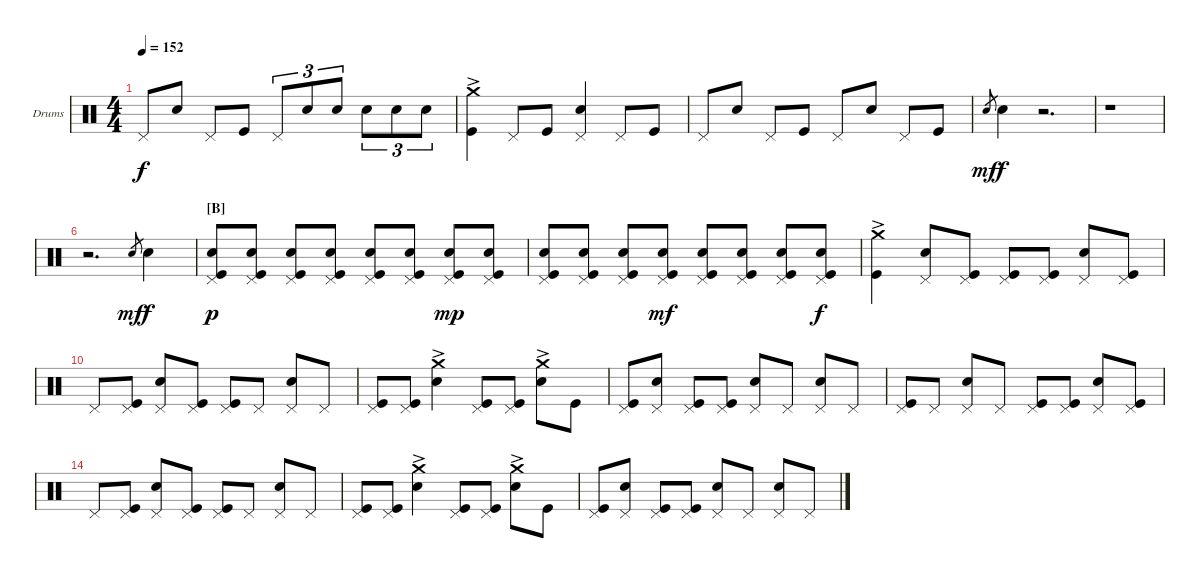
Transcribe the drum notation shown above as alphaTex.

\bracketExtendMode nobrackets
\firstSystemTrackNameOrientation horizontal
\otherSystemsTrackNameOrientation horizontal
\defaultBarNumberDisplay FirstOfSystem
\track ("Drumkit" "Drums") {instrument percussion}
\staff {score}
\articulation defaults
\ts (4 4)
\tempo 152
\clef neutral
\ks c "Pedal Hi-Hat (hit)".8{dy f} "Snare (hit) 2".8 "Pedal Hi-Hat (hit)".8 "Kick (hit)".8 "Pedal Hi-Hat (hit)".8{tu (3 2)} "Snare (hit) 2".8{tu (3 2)} "Snare (hit) 2".8{tu (3 2)} "Snare (hit) 2".8{tu (3 2)} "Snare (hit) 2".8{tu (3 2)} "Snare (hit) 2".8{tu (3 2)}
|
("Crash medium (hit)"{ac} "Kick (hit)").4 "Pedal Hi-Hat (hit)".8 "Kick (hit)".8 ("Pedal Hi-Hat (hit)" "Snare (hit) 2").4 "Pedal Hi-Hat (hit)".8 "Kick (hit)".8 |
"Pedal Hi-Hat (hit)".8 "Snare (hit) 2".8 "Pedal Hi-Hat (hit)".8 "Kick (hit)".8 "Pedal Hi-Hat (hit)".8 "Snare (hit) 2".8 "Pedal Hi-Hat (hit)".8 "Kick (hit)".8 |
"Snare (hit) 2".8{gr dy mf} "Snare (hit) 2".4{dy f} r.2{d} |
r.1 |
r.2{d} "Snare (hit) 2".8{gr dy mf} "Snare (hit) 2".4{dy f} |
\section ("B" "")
("Pedal Hi-Hat (hit)" "Snare (hit) 2" "Kick (hit)").8{dy p} ("Pedal Hi-Hat (hit)" "Snare (hit) 2" "Kick (hit)").8 ("Pedal Hi-Hat (hit)" "Snare (hit) 2" "Kick (hit)").8 ("Pedal Hi-Hat (hit)" "Snare (hit) 2" "Kick (hit)").8 ("Pedal Hi-Hat (hit)" "Snare (hit) 2" "Kick (hit)").8 ("Pedal Hi-Hat (hit)" "Snare (hit) 2" "Kick (hit)").8 ("Pedal Hi-Hat (hit)" "Snare (hit) 2" "Kick (hit)").8{dy mp} ("Pedal Hi-Hat (hit)" "Snare (hit) 2" "Kick (hit)").8 |
("Pedal Hi-Hat (hit)" "Snare (hit) 2" "Kick (hit)").8 ("Pedal Hi-Hat (hit)" "Snare (hit) 2" "Kick (hit)").8 ("Pedal Hi-Hat (hit)" "Snare (hit) 2" "Kick (hit)").8 ("Pedal Hi-Hat (hit)" "Snare (hit) 2" "Kick (hit)").8{dy mf} ("Pedal Hi-Hat (hit)" "Snare (hit) 2" "Kick (hit)").8 ("Pedal Hi-Hat (hit)" "Snare (hit) 2" "Kick (hit)").8 ("Pedal Hi-Hat (hit)" "Snare (hit) 2" "Kick (hit)").8 ("Pedal Hi-Hat (hit)" "Snare (hit) 2" "Kick (hit)").8{dy f} |
("Crash medium (hit)"{ac} "Kick (hit)").4 ("Pedal Hi-Hat (hit)" "Snare (hit) 2").8 ("Pedal Hi-Hat (hit)" "Kick (hit)").8 ("Pedal Hi-Hat (hit)" "Kick (hit)").8 ("Pedal Hi-Hat (hit)" "Kick (hit)").8 ("Pedal Hi-Hat (hit)" "Snare (hit) 2").8 ("Pedal Hi-Hat (hit)" "Kick (hit)").8 |
"Pedal Hi-Hat (hit)".8 ("Pedal Hi-Hat (hit)" "Kick (hit)").8 ("Pedal Hi-Hat (hit)" "Snare (hit) 2").8 ("Pedal Hi-Hat (hit)" "Kick (hit)").8 ("Pedal Hi-Hat (hit)" "Kick (hit)").8 "Pedal Hi-Hat (hit)".8 ("Pedal Hi-Hat (hit)" "Snare (hit) 2").8 "Pedal Hi-Hat (hit)".8 |
("Pedal Hi-Hat (hit)" "Kick (hit)").8 ("Pedal Hi-Hat (hit)" "Kick (hit)").8 ("Crash medium (hit)"{ac} "Snare (hit) 2").4 ("Pedal Hi-Hat (hit)" "Kick (hit)").8 ("Pedal Hi-Hat (hit)" "Kick (hit)").8 ("Crash medium (hit)"{ac} "Snare (hit) 2").8 "Kick (hit)".8 |
("Pedal Hi-Hat (hit)" "Kick (hit)").8 ("Pedal Hi-Hat (hit)" "Snare (hit) 2").8 ("Pedal Hi-Hat (hit)" "Kick (hit)").8 ("Pedal Hi-Hat (hit)" "Kick (hit)").8 ("Pedal Hi-Hat (hit)" "Snare (hit) 2").8 "Pedal Hi-Hat (hit)".8 ("Pedal Hi-Hat (hit)" "Snare (hit) 2").8 "Pedal Hi-Hat (hit)".8 |
("Pedal Hi-Hat (hit)" "Kick (hit)").8 "Pedal Hi-Hat (hit)".8 ("Pedal Hi-Hat (hit)" "Snare (hit) 2").8 "Pedal Hi-Hat (hit)".8 ("Pedal Hi-Hat (hit)" "Kick (hit)").8 ("Pedal Hi-Hat (hit)" "Kick (hit)").8 ("Pedal Hi-Hat (hit)" "Snare (hit) 2").8 ("Pedal Hi-Hat (hit)" "Kick (hit)").8 |
"Pedal Hi-Hat (hit)".8 ("Pedal Hi-Hat (hit)" "Kick (hit)").8 ("Pedal Hi-Hat (hit)" "Snare (hit) 2").8 ("Pedal Hi-Hat (hit)" "Kick (hit)").8 ("Pedal Hi-Hat (hit)" "Kick (hit)").8 "Pedal Hi-Hat (hit)".8 ("Pedal Hi-Hat (hit)" "Snare (hit) 2").8 "Pedal Hi-Hat (hit)".8 |
("Pedal Hi-Hat (hit)" "Kick (hit)").8 ("Pedal Hi-Hat (hit)" "Kick (hit)").8 ("Crash medium (hit)"{ac} "Snare (hit) 2").4 ("Pedal Hi-Hat (hit)" "Kick (hit)").8 ("Pedal Hi-Hat (hit)" "Kick (hit)").8 ("Crash medium (hit)"{ac} "Snare (hit) 2").8 "Kick (hit)".8 |
("Pedal Hi-Hat (hit)" "Kick (hit)").8 ("Pedal Hi-Hat (hit)" "Snare (hit) 2").8 ("Pedal Hi-Hat (hit)" "Kick (hit)").8 ("Pedal Hi-Hat (hit)" "Kick (hit)").8 ("Pedal Hi-Hat (hit)" "Snare (hit) 2").8 "Pedal Hi-Hat (hit)".8 ("Pedal Hi-Hat (hit)" "Snare (hit) 2").8 "Pedal Hi-Hat (hit)".8
